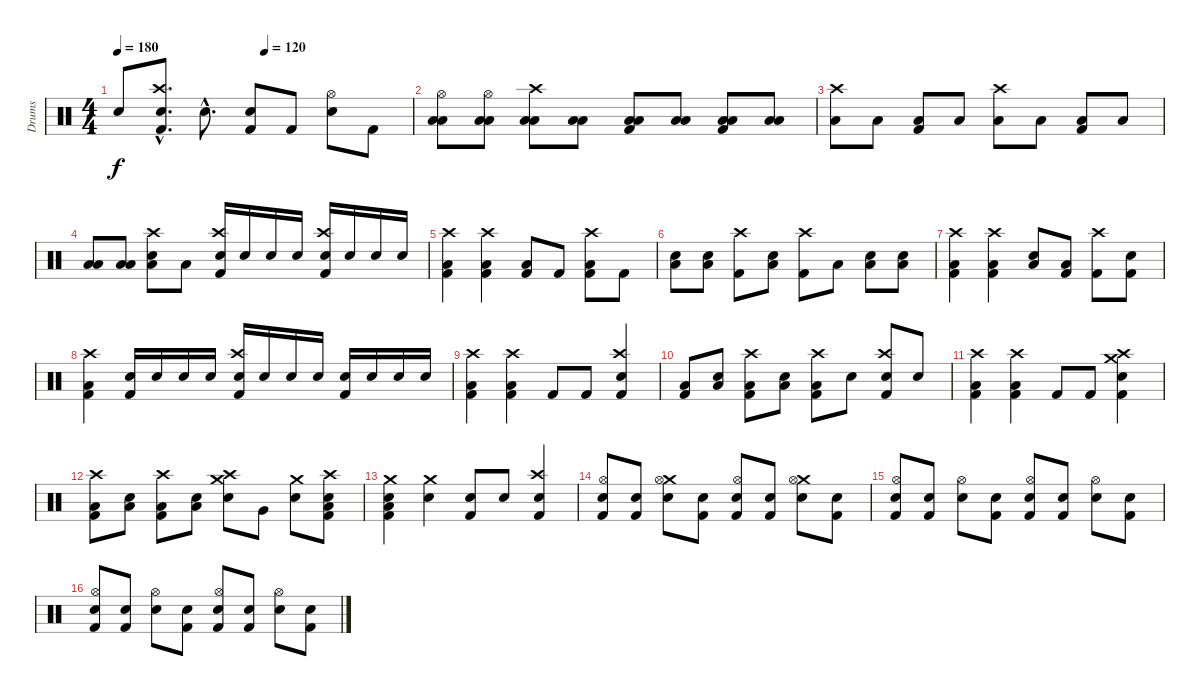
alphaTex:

\track ("Drums" "Drums") {instrument percussion}
\staff {score}
\articulation defaults
\ts (4 4)
\tempo 180
\tempo (120 0.5)
\clef neutral
\ks c "Snare (hit) 2"{t}.8{dy f}
("Crash high (hit)"{hac} "Snare (hit) 2"{hac} "Kick (hit) 2"{hac}).8{d} "Snare (hit) 2"{hac}.8{d} ("Snare (hit) 2" "Kick (hit) 2").8 "Kick (hit) 2".8 ("Hi-Hat (open)" "Snare (hit) 2").8 "Kick (hit) 2".8 |
("Hi-Hat (open)" "Low Floor Tom (hit)" "Low Floor Tom (hit)").8 ("Hi-Hat (open)" "Low Floor Tom (hit)" "Low Floor Tom (hit)").8 ("Crash high (hit)" "Low Floor Tom (hit)" "Low Floor Tom (hit)").8 ("Low Floor Tom (hit)" "Low Floor Tom (hit)").8 ("Low Floor Tom (hit)" "Low Floor Tom (hit)" "Kick (hit) 2").8 ("Low Floor Tom (hit)" "Low Floor Tom (hit)").8 ("Low Floor Tom (hit)" "Low Floor Tom (hit)" "Kick (hit) 2").8 ("Low Floor Tom (hit)" "Low Floor Tom (hit)").8 |
("Crash high (hit)" "Low Floor Tom (hit)").8 "Low Floor Tom (hit)".8 ("Low Floor Tom (hit)" "Kick (hit) 2").8 "Low Floor Tom (hit)".8 ("Crash high (hit)" "Low Floor Tom (hit)").8 "Low Floor Tom (hit)".8 ("Low Floor Tom (hit)" "Kick (hit) 2").8 "Low Floor Tom (hit)".8 |
("Low Floor Tom (hit)" "Low Floor Tom (hit)").8 ("Low Floor Tom (hit)" "Low Floor Tom (hit)").8 ("Snare (hit) 2" "Crash high (hit)" "Low Floor Tom (hit)").8 "Low Floor Tom (hit)".8 ("Crash high (hit)" "Snare (hit) 2" "Kick (hit) 2").16 "Snare (hit) 2".16 "Snare (hit) 2".16 "Snare (hit) 2".16 ("Crash high (hit)" "Snare (hit) 2" "Kick (hit) 2").16 "Snare (hit) 2".16 "Snare (hit) 2".16 "Snare (hit) 2".16 |
("Crash high (hit)" "Low Floor Tom (hit)" "Kick (hit) 2").4 ("Kick (hit) 2" "Low Floor Tom (hit)" "Crash high (hit)").4 ("Low Floor Tom (hit)" "Kick (hit) 2").8 "Kick (hit) 2".8 ("Crash high (hit)" "Low Floor Tom (hit)" "Kick (hit) 2").8 "Kick (hit) 2".8 |
("Snare (hit) 2" "Low Floor Tom (hit)").8 ("Snare (hit) 2" "Low Floor Tom (hit)").8 ("Crash high (hit)" "Kick (hit) 2").8 ("Snare (hit) 2" "Low Floor Tom (hit)").8 ("Crash high (hit)" "Kick (hit) 2").8 "Low Floor Tom (hit)".8 ("Snare (hit) 2" "Low Floor Tom (hit)").8 ("Snare (hit) 2" "Low Floor Tom (hit)").8 |
("Crash high (hit)" "Low Floor Tom (hit)" "Kick (hit) 2").4 ("Crash high (hit)" "Low Floor Tom (hit)" "Kick (hit) 2").4 ("Low Floor Tom (hit)" "Snare (hit) 2").8 ("Low Floor Tom (hit)" "Kick (hit) 2").8 ("Crash high (hit)" "Kick (hit) 2").8 ("Snare (hit) 2" "Kick (hit) 2").8 |
("Crash high (hit)" "Low Floor Tom (hit)" "Kick (hit) 2").4 ("Snare (hit) 2" "Kick (hit) 2").16 "Snare (hit) 2".16 "Snare (hit) 2".16 "Snare (hit) 2".16 ("Crash high (hit)" "Snare (hit) 2" "Kick (hit) 2").16 "Snare (hit) 2".16 "Snare (hit) 2".16 "Snare (hit) 2".16 ("Snare (hit) 2" "Kick (hit) 2").16 "Snare (hit) 2".16 "Snare (hit) 2".16 "Snare (hit) 2".16 |
("Crash high (hit)" "Low Floor Tom (hit)" "Kick (hit) 2").4 ("Crash high (hit)" "Low Floor Tom (hit)" "Kick (hit) 2").4 "Kick (hit) 2".8 "Kick (hit) 2".8 ("Crash high (hit)" "Snare (hit) 2" "Kick (hit) 2").4 |
("Low Floor Tom (hit)" "Kick (hit) 2").8 ("Low Floor Tom (hit)" "Snare (hit) 2").8 ("Crash high (hit)" "Kick (hit) 2" "Low Floor Tom (hit)").8 ("Low Floor Tom (hit)" "Snare (hit) 2").8 ("Low Floor Tom (hit)" "Kick (hit) 2" "Crash high (hit)").8 "Snare (hit) 2".8 ("Crash high (hit)" "Snare (hit) 2" "Kick (hit) 2").8 "Snare (hit) 2".8 |
("Crash high (hit)" "Low Floor Tom (hit)" "Kick (hit) 2").4 ("Crash high (hit)" "Low Floor Tom (hit)" "Kick (hit) 2").4 "Kick (hit) 2".8 "Kick (hit) 2".8 ("Kick (hit) 2" "Crash medium (hit)" "Snare (hit) 2" "Crash high (hit)").4 |
("Crash high (hit)" "Low Floor Tom (hit)" "Kick (hit) 2").8 ("Snare (hit) 2" "Low Floor Tom (hit)").8 ("Crash high (hit)" "Low Floor Tom (hit)" "Kick (hit) 2").8 ("Snare (hit) 2" "Low Floor Tom (hit)").8 ("Crash high (hit)" "Crash medium (hit)" "Snare (hit) 2").8 "Very Low Tom (hit)".8 ("Crash medium (hit)" "Snare (hit) 2").8 ("Crash high (hit)" "Low Floor Tom (hit)" "Snare (hit) 2" "Kick (hit) 2").8 |
("Crash medium (hit)" "Snare (hit) 2" "Low Floor Tom (hit)" "Kick (hit) 2").4 ("Crash medium (hit)" "Snare (hit) 2").4 ("Snare (hit) 2" "Kick (hit) 2").8 "Snare (hit) 2".8 ("Crash high (hit)" "Snare (hit) 2" "Kick (hit) 2").4 |
("Hi-Hat (open)" "Electric Snare (hit)" "Kick (hit) 2").8{volume 10} ("Electric Snare (hit)" "Kick (hit) 2").8 ("Crash medium (hit)" "Hi-Hat (open)" "Electric Snare (hit)").8 ("Snare (hit) 2" "Kick (hit) 2").8 ("Hi-Hat (open)" "Electric Snare (hit)" "Kick (hit) 2").8 ("Electric Snare (hit)" "Kick (hit) 2").8 ("Crash medium (hit)" "Hi-Hat (open)" "Electric Snare (hit)").8 ("Kick (hit) 2" "Snare (hit) 2").8 |
("Hi-Hat (open)" "Electric Snare (hit)" "Kick (hit) 2").8 ("Electric Snare (hit)" "Kick (hit) 2").8 ("Hi-Hat (open)" "Electric Snare (hit)").8 ("Snare (hit) 2" "Kick (hit) 2").8 ("Hi-Hat (open)" "Electric Snare (hit)" "Kick (hit) 2").8 ("Electric Snare (hit)" "Kick (hit) 2").8 ("Hi-Hat (open)" "Electric Snare (hit)").8 ("Kick (hit) 2" "Snare (hit) 2").8 |
("Hi-Hat (open)" "Electric Snare (hit)" "Kick (hit) 2").8 ("Electric Snare (hit)" "Kick (hit) 2").8 ("Hi-Hat (open)" "Electric Snare (hit)").8 ("Snare (hit) 2" "Kick (hit) 2").8 ("Hi-Hat (open)" "Electric Snare (hit)" "Kick (hit) 2").8 ("Electric Snare (hit)" "Kick (hit) 2").8 ("Hi-Hat (open)" "Electric Snare (hit)").8 ("Kick (hit) 2" "Snare (hit) 2").8
